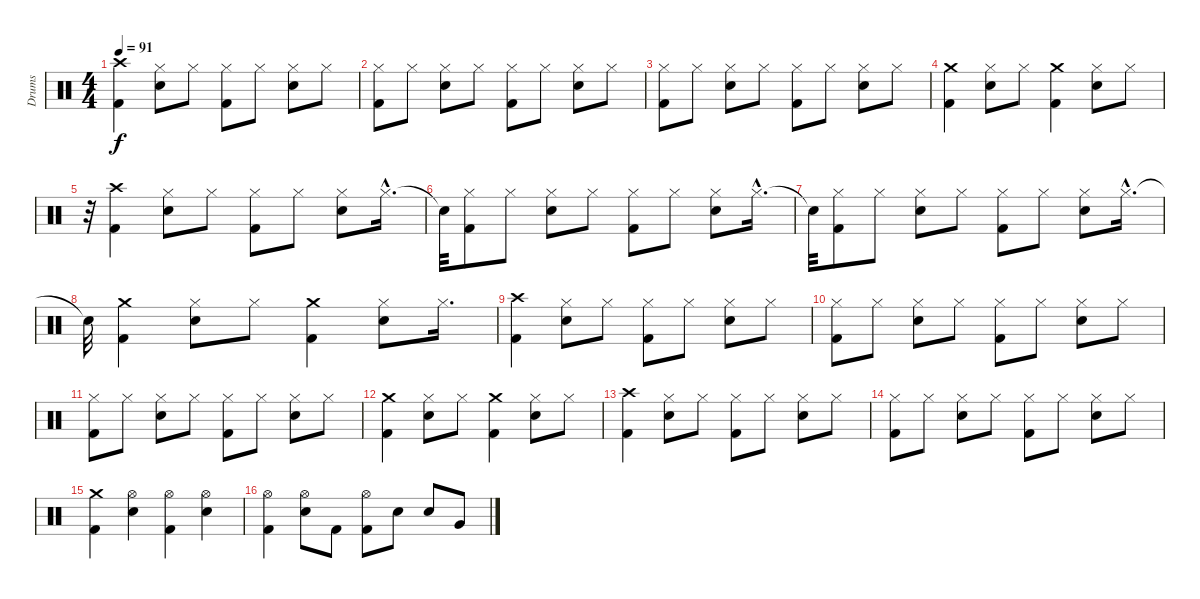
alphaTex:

\track ("Drums" "Drums") {instrument percussion}
\staff {score}
\articulation defaults
\ts (4 4)
\tempo 91
\clef neutral
\ks c
("Kick (hit) 2" "Crash high (hit)").4{dy f} ("Hi-Hat (closed)" "Electric Snare (hit)").8 "Hi-Hat (closed)".8 ("Hi-Hat (closed)" "Kick (hit) 2").8 "Hi-Hat (closed)".8 ("Hi-Hat (closed)" "Electric Snare (hit)").8 "Hi-Hat (closed)".8 |
("Hi-Hat (closed)" "Kick (hit) 2").8 "Hi-Hat (closed)".8 ("Hi-Hat (closed)" "Electric Snare (hit)").8 "Hi-Hat (closed)".8 ("Hi-Hat (closed)" "Kick (hit) 2").8 "Hi-Hat (closed)".8 ("Hi-Hat (closed)" "Electric Snare (hit)").8 "Hi-Hat (closed)".8 |
("Hi-Hat (closed)" "Kick (hit) 2").8 "Hi-Hat (closed)".8 ("Hi-Hat (closed)" "Electric Snare (hit)").8 "Hi-Hat (closed)".8 ("Hi-Hat (closed)" "Kick (hit) 2").8 "Hi-Hat (closed)".8 ("Hi-Hat (closed)" "Electric Snare (hit)").8 "Hi-Hat (closed)".8 |
("Crash medium (hit)" "Kick (hit) 2").4 ("Hi-Hat (closed)" "Electric Snare (hit)").8 "Hi-Hat (closed)".8 ("Crash medium (hit)" "Kick (hit) 2").4 ("Hi-Hat (closed)" "Electric Snare (hit)").8 "Hi-Hat (closed)".8 |
r.32 ("Kick (hit) 2" "Crash high (hit)").4 ("Hi-Hat (closed)" "Electric Snare (hit)").8 "Hi-Hat (closed)".8 ("Hi-Hat (closed)" "Kick (hit) 2").8 "Hi-Hat (closed)".8 ("Hi-Hat (closed)" "Electric Snare (hit)").8 "Hi-Hat (closed)"{hac}.16{d} |
"Snare (hit)"{t}.32 ("Hi-Hat (closed)" "Kick (hit) 2").8 "Hi-Hat (closed)".8 ("Hi-Hat (closed)" "Electric Snare (hit)").8 "Hi-Hat (closed)".8 ("Hi-Hat (closed)" "Kick (hit) 2").8 "Hi-Hat (closed)".8 ("Hi-Hat (closed)" "Electric Snare (hit)").8 "Hi-Hat (closed)"{hac}.16{d} |
"Snare (hit)"{t}.32 ("Hi-Hat (closed)" "Kick (hit) 2").8 "Hi-Hat (closed)".8 ("Hi-Hat (closed)" "Electric Snare (hit)").8 "Hi-Hat (closed)".8 ("Hi-Hat (closed)" "Kick (hit) 2").8 "Hi-Hat (closed)".8 ("Hi-Hat (closed)" "Electric Snare (hit)").8 "Hi-Hat (closed)"{hac}.16{d} |
"Snare (hit)"{t}.32 ("Crash medium (hit)" "Kick (hit) 2").4 ("Hi-Hat (closed)" "Electric Snare (hit)").8 "Hi-Hat (closed)".8 ("Crash medium (hit)" "Kick (hit) 2").4 ("Hi-Hat (closed)" "Electric Snare (hit)").8 "Hi-Hat (closed)".16{d} |
("Kick (hit) 2" "Crash high (hit)").4 ("Hi-Hat (closed)" "Electric Snare (hit)").8 "Hi-Hat (closed)".8 ("Hi-Hat (closed)" "Kick (hit) 2").8 "Hi-Hat (closed)".8 ("Hi-Hat (closed)" "Electric Snare (hit)").8 "Hi-Hat (closed)".8 |
("Hi-Hat (closed)" "Kick (hit) 2").8 "Hi-Hat (closed)".8 ("Hi-Hat (closed)" "Electric Snare (hit)").8 "Hi-Hat (closed)".8 ("Hi-Hat (closed)" "Kick (hit) 2").8 "Hi-Hat (closed)".8 ("Hi-Hat (closed)" "Electric Snare (hit)").8 "Hi-Hat (closed)".8 |
("Hi-Hat (closed)" "Kick (hit) 2").8 "Hi-Hat (closed)".8 ("Hi-Hat (closed)" "Electric Snare (hit)").8 "Hi-Hat (closed)".8 ("Hi-Hat (closed)" "Kick (hit) 2").8 "Hi-Hat (closed)".8 ("Hi-Hat (closed)" "Electric Snare (hit)").8 "Hi-Hat (closed)".8 |
("Crash medium (hit)" "Kick (hit) 2").4 ("Hi-Hat (closed)" "Electric Snare (hit)").8 "Hi-Hat (closed)".8 ("Crash medium (hit)" "Kick (hit) 2").4 ("Hi-Hat (closed)" "Electric Snare (hit)").8 "Hi-Hat (closed)".8 |
("Kick (hit) 2" "Crash high (hit)").4 ("Hi-Hat (closed)" "Electric Snare (hit)").8 "Hi-Hat (closed)".8 ("Hi-Hat (closed)" "Kick (hit) 2").8 "Hi-Hat (closed)".8 ("Hi-Hat (closed)" "Electric Snare (hit)").8 "Hi-Hat (closed)".8 |
("Hi-Hat (closed)" "Kick (hit) 2").8 "Hi-Hat (closed)".8 ("Hi-Hat (closed)" "Electric Snare (hit)").8 "Hi-Hat (closed)".8 ("Hi-Hat (closed)" "Kick (hit) 2").8 "Hi-Hat (closed)".8 ("Hi-Hat (closed)" "Electric Snare (hit)").8 "Hi-Hat (closed)".8 |
("Kick (hit) 2" "Crash medium (hit)").4 ("Hi-Hat (open)" "Electric Snare (hit)").4 ("Hi-Hat (open)" "Kick (hit) 2").4 ("Hi-Hat (open)" "Electric Snare (hit)").4 |
("Hi-Hat (open)" "Kick (hit) 2").4 ("Hi-Hat (open)" "Electric Snare (hit)").8 "Kick (hit) 2".8 ("Hi-Hat (open)" "Kick (hit) 2").8 "Electric Snare (hit)".8 "Electric Snare (hit)".8 "Very Low Tom (hit)".8
